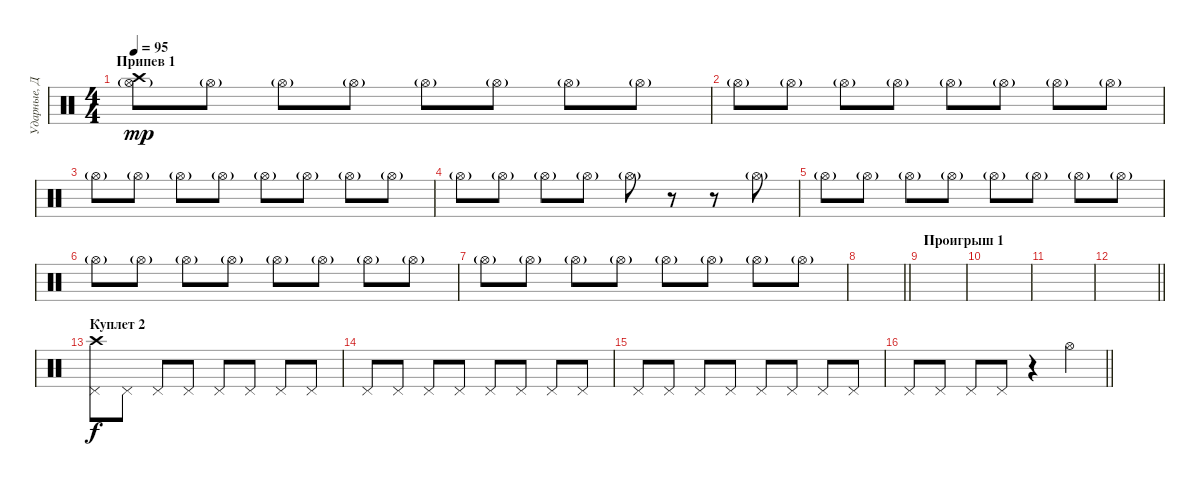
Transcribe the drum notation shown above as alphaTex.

\track ("Ударные, Дэн" "Ударные, Д") {instrument percussion}
\staff {score}
\articulation defaults
\ts (4 4)
\section ("" "Припев 1")
\tempo 95
\clef neutral
\ks c
("Hi-Hat (open)"{g} "Crash high (hit)").8{dy mp} "Hi-Hat (open)"{g}.8 "Hi-Hat (open)"{g}.8 "Hi-Hat (open)"{g}.8 "Hi-Hat (open)"{g}.8 "Hi-Hat (open)"{g}.8 "Hi-Hat (open)"{g}.8 "Hi-Hat (open)"{g}.8 |
"Hi-Hat (open)"{g}.8 "Hi-Hat (open)"{g}.8 "Hi-Hat (open)"{g}.8 "Hi-Hat (open)"{g}.8 "Hi-Hat (open)"{g}.8 "Hi-Hat (open)"{g}.8 "Hi-Hat (open)"{g}.8 "Hi-Hat (open)"{g}.8 |
"Hi-Hat (open)"{g}.8 "Hi-Hat (open)"{g}.8 "Hi-Hat (open)"{g}.8 "Hi-Hat (open)"{g}.8 "Hi-Hat (open)"{g}.8 "Hi-Hat (open)"{g}.8 "Hi-Hat (open)"{g}.8 "Hi-Hat (open)"{g}.8 |
"Hi-Hat (open)"{g}.8 "Hi-Hat (open)"{g}.8 "Hi-Hat (open)"{g}.8 "Hi-Hat (open)"{g}.8 "Hi-Hat (open)"{g}.8 r.8 r.8 "Hi-Hat (open)"{g}.8 |
"Hi-Hat (open)"{g}.8 "Hi-Hat (open)"{g}.8 "Hi-Hat (open)"{g}.8 "Hi-Hat (open)"{g}.8 "Hi-Hat (open)"{g}.8 "Hi-Hat (open)"{g}.8 "Hi-Hat (open)"{g}.8 "Hi-Hat (open)"{g}.8 |
"Hi-Hat (open)"{g}.8 "Hi-Hat (open)"{g}.8 "Hi-Hat (open)"{g}.8 "Hi-Hat (open)"{g}.8 "Hi-Hat (open)"{g}.8 "Hi-Hat (open)"{g}.8 "Hi-Hat (open)"{g}.8 "Hi-Hat (open)"{g}.8 |
"Hi-Hat (open)"{g}.8 "Hi-Hat (open)"{g}.8 "Hi-Hat (open)"{g}.8 "Hi-Hat (open)"{g}.8 "Hi-Hat (open)"{g}.8 "Hi-Hat (open)"{g}.8 "Hi-Hat (open)"{g}.8 "Hi-Hat (open)"{g}.8 |
\barLineRight lightlight
|
\section ("" "Проигрыш 1")
|
|
|
\barLineRight lightlight
|
\section ("" "Куплет 2")
("Pedal Hi-Hat (hit)" "Crash high (hit)").8{dy f} "Pedal Hi-Hat (hit)".8 "Pedal Hi-Hat (hit)".8 "Pedal Hi-Hat (hit)".8 "Pedal Hi-Hat (hit)".8 "Pedal Hi-Hat (hit)".8 "Pedal Hi-Hat (hit)".8 "Pedal Hi-Hat (hit)".8 |
"Pedal Hi-Hat (hit)".8 "Pedal Hi-Hat (hit)".8 "Pedal Hi-Hat (hit)".8 "Pedal Hi-Hat (hit)".8 "Pedal Hi-Hat (hit)".8 "Pedal Hi-Hat (hit)".8 "Pedal Hi-Hat (hit)".8 "Pedal Hi-Hat (hit)".8 |
"Pedal Hi-Hat (hit)".8 "Pedal Hi-Hat (hit)".8 "Pedal Hi-Hat (hit)".8 "Pedal Hi-Hat (hit)".8 "Pedal Hi-Hat (hit)".8 "Pedal Hi-Hat (hit)".8 "Pedal Hi-Hat (hit)".8 "Pedal Hi-Hat (hit)".8 |
\barLineRight lightlight "Pedal Hi-Hat (hit)".8 "Pedal Hi-Hat (hit)".8 "Pedal Hi-Hat (hit)".8 "Pedal Hi-Hat (hit)".8
r.4 "Hi-Hat (open)".4
